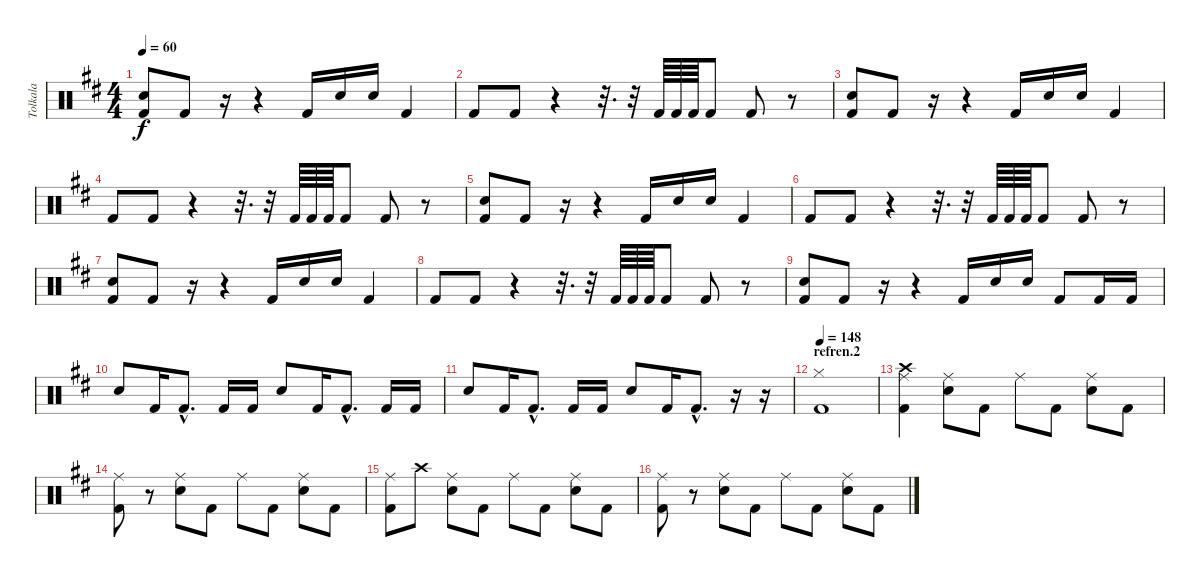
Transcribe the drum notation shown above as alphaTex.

\track ("Tolkala" "Tolkala") {instrument percussion}
\staff {score}
\articulation defaults
\ts (4 4)
\tempo 60
\clef neutral
\ks d
("Hand Clap (hit)" "Kick (hit) 2").8{dy f} "Kick (hit) 2".8 r.16 r.4 "Kick (hit) 2".16 "Hand Clap (hit)".16 "Hand Clap (hit)".16 "Kick (hit) 2".4 |
"Kick (hit) 2".8 "Kick (hit) 2".8 r.4 r.32{d} r.32 "Kick (hit) 2".64 "Kick (hit) 2".64 "Kick (hit) 2".64 "Kick (hit) 2".8 "Kick (hit) 2".8 r.8 |
("Hand Clap (hit)" "Kick (hit) 2").8 "Kick (hit) 2".8 r.16 r.4 "Kick (hit) 2".16 "Hand Clap (hit)".16 "Hand Clap (hit)".16 "Kick (hit) 2".4 |
"Kick (hit) 2".8 "Kick (hit) 2".8 r.4 r.32{d} r.32 "Kick (hit) 2".64 "Kick (hit) 2".64 "Kick (hit) 2".64 "Kick (hit) 2".8 "Kick (hit) 2".8 r.8 |
("Hand Clap (hit)" "Kick (hit) 2").8 "Kick (hit) 2".8 r.16 r.4 "Kick (hit) 2".16 "Hand Clap (hit)".16 "Hand Clap (hit)".16 "Kick (hit) 2".4 |
"Kick (hit) 2".8 "Kick (hit) 2".8 r.4 r.32{d} r.32 "Kick (hit) 2".64 "Kick (hit) 2".64 "Kick (hit) 2".64 "Kick (hit) 2".8 "Kick (hit) 2".8 r.8 |
("Hand Clap (hit)" "Kick (hit) 2").8 "Kick (hit) 2".8 r.16 r.4 "Kick (hit) 2".16 "Hand Clap (hit)".16 "Hand Clap (hit)".16 "Kick (hit) 2".4 |
"Kick (hit) 2".8 "Kick (hit) 2".8 r.4 r.32{d} r.32 "Kick (hit) 2".64 "Kick (hit) 2".64 "Kick (hit) 2".64 "Kick (hit) 2".8 "Kick (hit) 2".8 r.8 |
("Hand Clap (hit)" "Kick (hit) 2").8 "Kick (hit) 2".8 r.16 r.4 "Kick (hit) 2".16 "Hand Clap (hit)".16 "Hand Clap (hit)".16 "Kick (hit) 2".8 "Kick (hit) 2".16 "Kick (hit) 2".16 |
"Hand Clap (hit)".8 "Kick (hit) 2".16 "Kick (hit) 2"{hac}.8{d} "Kick (hit) 2".16 "Kick (hit) 2".16 "Hand Clap (hit)".8 "Kick (hit) 2".16 "Kick (hit) 2"{hac}.8{d} "Kick (hit) 2".16 "Kick (hit) 2".16 |
"Hand Clap (hit)".8 "Kick (hit) 2".16 "Kick (hit) 2"{hac}.8{d} "Kick (hit) 2".16 "Kick (hit) 2".16 "Hand Clap (hit)".8 "Kick (hit) 2".16 "Kick (hit) 2"{hac}.8{d} r.16 r.16 |
\section ("" "refren.2")
\tempo 148
("Hi-Hat (closed)" "Kick (hit) 2").1 |
("Crash high (hit)" "Kick (hit) 2" "Ride (middle)").4 ("Snare (hit) 2" "Ride (middle)").8 "Kick (hit) 2".8 "Ride (middle)".8 "Kick (hit) 2".8 ("Snare (hit) 2" "Ride (middle)").8 "Kick (hit) 2".8 |
("Kick (hit) 2" "Ride (middle)").8 r.8 ("Snare (hit) 2" "Ride (middle)").8 "Kick (hit) 2".8 "Ride (middle)".8 "Kick (hit) 2".8 ("Snare (hit) 2" "Ride (middle)").8 "Kick (hit) 2".8 |
("Kick (hit) 2" "Ride (middle)").8 "Crash high (hit)".8 ("Snare (hit) 2" "Ride (middle)").8 "Kick (hit) 2".8 "Ride (middle)".8 "Kick (hit) 2".8 ("Snare (hit) 2" "Ride (middle)").8 "Kick (hit) 2".8 |
("Kick (hit) 2" "Ride (middle)").8 r.8 ("Snare (hit) 2" "Ride (middle)").8 "Kick (hit) 2".8 "Ride (middle)".8 "Kick (hit) 2".8 ("Snare (hit) 2" "Ride (middle)").8 "Kick (hit) 2".8
